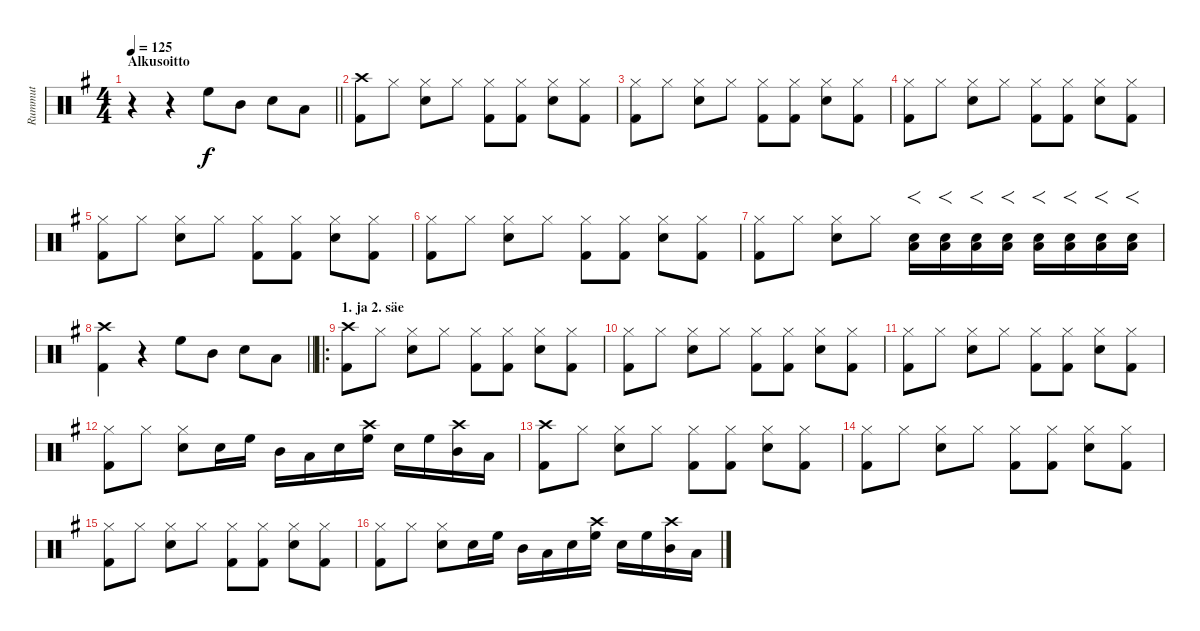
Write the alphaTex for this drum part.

\track ("Rummut" "Rummut") {instrument percussion}
\staff {score}
\articulation defaults
\ts (4 4)
\section ("" "Alkusoitto")
\tempo 125
\clef neutral
\barLineRight lightlight
\ks g
r.4{dy f} r.4 "High Floor Tom (hit)".8 "Mid Tom (hit)".8 "Snare (hit) 2".8 "Low Tom (hit)".8 |
("Crash high (hit)" "Kick (hit) 2").8 "Hi-Hat (closed)".8 ("Snare (hit) 2" "Hi-Hat (closed)").8 "Hi-Hat (closed)".8 ("Hi-Hat (closed)" "Kick (hit) 2").8 ("Hi-Hat (closed)" "Kick (hit) 2").8 ("Hi-Hat (closed)" "Snare (hit) 2").8 ("Hi-Hat (closed)" "Kick (hit) 2").8 |
("Hi-Hat (closed)" "Kick (hit) 2").8 "Hi-Hat (closed)".8 ("Hi-Hat (closed)" "Snare (hit) 2").8 "Hi-Hat (closed)".8 ("Hi-Hat (closed)" "Kick (hit) 2").8 ("Hi-Hat (closed)" "Kick (hit) 2").8 ("Hi-Hat (closed)" "Snare (hit) 2").8 ("Hi-Hat (closed)" "Kick (hit) 2").8 |
("Hi-Hat (closed)" "Kick (hit) 2").8 "Hi-Hat (closed)".8 ("Hi-Hat (closed)" "Snare (hit) 2").8 "Hi-Hat (closed)".8 ("Hi-Hat (closed)" "Kick (hit) 2").8 ("Hi-Hat (closed)" "Kick (hit) 2").8 ("Hi-Hat (closed)" "Snare (hit) 2").8 ("Hi-Hat (closed)" "Kick (hit) 2").8 |
("Hi-Hat (closed)" "Kick (hit) 2").8 "Hi-Hat (closed)".8 ("Hi-Hat (closed)" "Snare (hit) 2").8 "Hi-Hat (closed)".8 ("Hi-Hat (closed)" "Kick (hit) 2").8 ("Hi-Hat (closed)" "Kick (hit) 2").8 ("Hi-Hat (closed)" "Snare (hit) 2").8 ("Hi-Hat (closed)" "Kick (hit) 2").8 |
("Hi-Hat (closed)" "Kick (hit) 2").8 "Hi-Hat (closed)".8 ("Hi-Hat (closed)" "Snare (hit) 2").8 "Hi-Hat (closed)".8 ("Hi-Hat (closed)" "Kick (hit) 2").8 ("Hi-Hat (closed)" "Kick (hit) 2").8 ("Hi-Hat (closed)" "Snare (hit) 2").8 ("Hi-Hat (closed)" "Kick (hit) 2").8 |
("Hi-Hat (closed)" "Kick (hit) 2").8 "Hi-Hat (closed)".8 ("Hi-Hat (closed)" "Snare (hit) 2").8 "Hi-Hat (closed)".8 ("Snare (hit) 2" "Low Floor Tom (hit)").16{f} ("Snare (hit) 2" "Low Floor Tom (hit)").16{f} ("Low Floor Tom (hit)" "Snare (hit) 2").16{f} ("Snare (hit) 2" "Low Floor Tom (hit)").16{f} ("Snare (hit) 2" "Low Floor Tom (hit)").16{f} ("Snare (hit) 2" "Low Floor Tom (hit)").16{f} ("Snare (hit) 2" "Low Floor Tom (hit)").16{f} ("Snare (hit) 2" "Low Floor Tom (hit)").16{f} |
\barLineRight lightlight
("Crash high (hit)" "Kick (hit) 2").4 r.4 "High Floor Tom (hit)".8 "Mid Tom (hit)".8 "Snare (hit) 2".8 "Low Tom (hit)".8 |
\ro
\section ("" "1. ja 2. säe")
("Kick (hit) 2" "Crash high (hit)").8 "Hi-Hat (closed)".8 ("Snare (hit) 2" "Hi-Hat (closed)").8 "Hi-Hat (closed)".8 ("Hi-Hat (closed)" "Kick (hit) 2").8 ("Hi-Hat (closed)" "Kick (hit) 2").8 ("Hi-Hat (closed)" "Snare (hit) 2").8 ("Hi-Hat (closed)" "Kick (hit) 2").8 |
("Hi-Hat (closed)" "Kick (hit) 2").8 "Hi-Hat (closed)".8 ("Hi-Hat (closed)" "Snare (hit) 2").8 "Hi-Hat (closed)".8 ("Hi-Hat (closed)" "Kick (hit) 2").8 ("Hi-Hat (closed)" "Kick (hit) 2").8 ("Hi-Hat (closed)" "Snare (hit) 2").8 ("Hi-Hat (closed)" "Kick (hit) 2").8 |
("Hi-Hat (closed)" "Kick (hit) 2").8 "Hi-Hat (closed)".8 ("Hi-Hat (closed)" "Snare (hit) 2").8 "Hi-Hat (closed)".8 ("Hi-Hat (closed)" "Kick (hit) 2").8 ("Hi-Hat (closed)" "Kick (hit) 2").8 ("Hi-Hat (closed)" "Snare (hit) 2").8 ("Hi-Hat (closed)" "Kick (hit) 2").8 |
("Hi-Hat (closed)" "Kick (hit) 2").8 "Hi-Hat (closed)".8 ("Snare (hit) 2" "Hi-Hat (closed)").8 "Snare (hit) 2".16 "High Floor Tom (hit)".16 "Mid Tom (hit)".16 "Low Tom (hit)".16 "Snare (hit) 2".16 ("Crash high (hit)" "High Floor Tom (hit)").16 "Snare (hit) 2".16 "High Floor Tom (hit)".16 ("Crash high (hit)" "Mid Tom (hit)").16 "Low Tom (hit)".16 |
("Kick (hit) 2" "Crash high (hit)").8 "Hi-Hat (closed)".8 ("Snare (hit) 2" "Hi-Hat (closed)").8 "Hi-Hat (closed)".8 ("Hi-Hat (closed)" "Kick (hit) 2").8 ("Hi-Hat (closed)" "Kick (hit) 2").8 ("Hi-Hat (closed)" "Snare (hit) 2").8 ("Hi-Hat (closed)" "Kick (hit) 2").8 |
("Hi-Hat (closed)" "Kick (hit) 2").8 "Hi-Hat (closed)".8 ("Hi-Hat (closed)" "Snare (hit) 2").8 "Hi-Hat (closed)".8 ("Hi-Hat (closed)" "Kick (hit) 2").8 ("Hi-Hat (closed)" "Kick (hit) 2").8 ("Hi-Hat (closed)" "Snare (hit) 2").8 ("Hi-Hat (closed)" "Kick (hit) 2").8 |
("Hi-Hat (closed)" "Kick (hit) 2").8 "Hi-Hat (closed)".8 ("Hi-Hat (closed)" "Snare (hit) 2").8 "Hi-Hat (closed)".8 ("Hi-Hat (closed)" "Kick (hit) 2").8 ("Hi-Hat (closed)" "Kick (hit) 2").8 ("Hi-Hat (closed)" "Snare (hit) 2").8 ("Hi-Hat (closed)" "Kick (hit) 2").8 |
("Hi-Hat (closed)" "Kick (hit) 2").8 "Hi-Hat (closed)".8 ("Snare (hit) 2" "Hi-Hat (closed)").8 "Snare (hit) 2".16 "High Floor Tom (hit)".16 "Mid Tom (hit)".16 "Low Tom (hit)".16 "Snare (hit) 2".16 ("Crash high (hit)" "High Floor Tom (hit)").16 "Snare (hit) 2".16 "High Floor Tom (hit)".16 ("Crash high (hit)" "Mid Tom (hit)").16 "Low Tom (hit)".16
